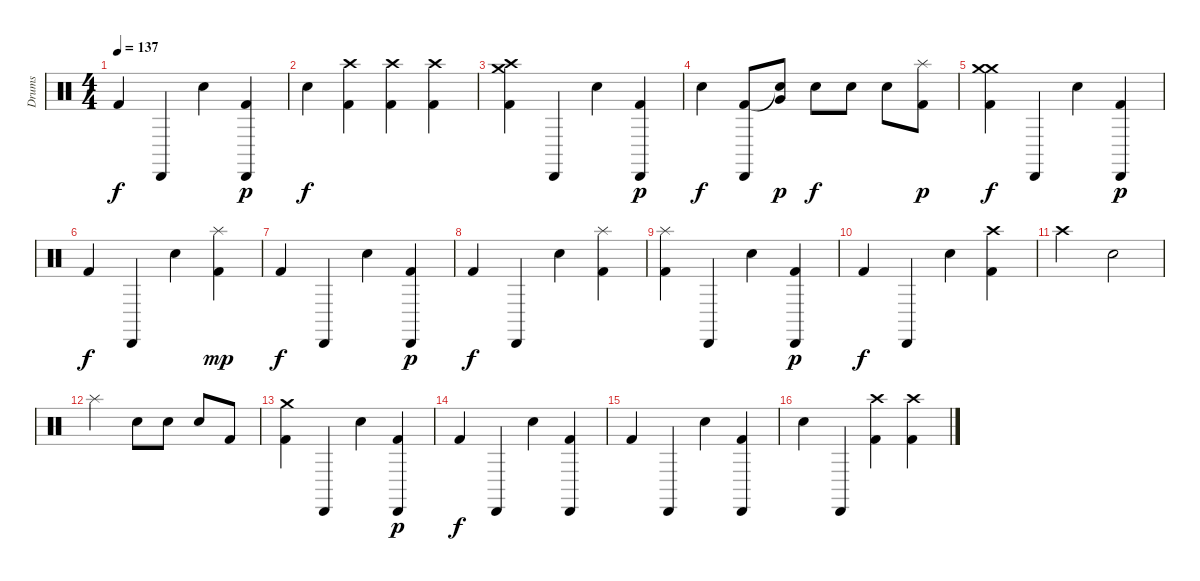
\track ("Drums" "Drums") {instrument percussion}
\staff {score}
\articulation defaults
\ts (4 4)
\tempo 137
\clef neutral
\ks c "Kick (hit) 2".4{dy f} "Cabasa (hit)".4 "Electric Snare (hit)".4
("Cabasa (hit)" "Kick (hit) 2").4{dy p} |
"Electric Snare (hit)".4{dy f} ("Crash high (hit)" "Kick (hit) 2").4 ("Crash high (hit)" "Kick (hit) 2").4 ("Crash high (hit)" "Kick (hit) 2").4 |
("Crash high (hit)" "Crash medium (hit)" "Kick (hit) 2").4 "Cabasa (hit)".4 "Electric Snare (hit)".4 ("Cabasa (hit)" "Kick (hit) 2").4{dy p} |
"Electric Snare (hit)".4{dy f} ("Cabasa (hit)" "Kick (hit) 2").8 ("Very Low Tom (hit)" "Snare (hit)"{t}).8{dy p} "Electric Snare (hit)".8{dy f} "Electric Snare (hit)".8 "Electric Snare (hit)".8 ("Splash (hit)" "Kick (hit) 2").8{dy p} |
("Crash medium (hit)" "Crash medium (hit)" "Kick (hit) 2").4{dy f} "Cabasa (hit)".4 "Electric Snare (hit)".4 ("Cabasa (hit)" "Kick (hit) 2").4{dy p} |
"Kick (hit) 2".4{dy f} "Cabasa (hit)".4 "Electric Snare (hit)".4 ("Splash (hit)" "Kick (hit) 2").4{dy mp} |
"Kick (hit) 2".4{dy f} "Cabasa (hit)".4 "Electric Snare (hit)".4 ("Cabasa (hit)" "Kick (hit) 2").4{dy p} |
"Kick (hit) 2".4{dy f} "Cabasa (hit)".4 "Electric Snare (hit)".4 ("Splash (hit)" "Kick (hit) 2").4 |
("Splash (hit)" "Kick (hit) 2").4 "Cabasa (hit)".4 "Electric Snare (hit)".4 ("Cabasa (hit)" "Kick (hit) 2").4{dy p} |
"Kick (hit) 2".4{dy f} "Cabasa (hit)".4 "Electric Snare (hit)".4 ("Crash high (hit)" "Kick (hit) 2").4 |
"Crash high (hit)".2 "Electric Snare (hit)".2 |
"Splash (hit)".2 "Electric Snare (hit)".8 "Electric Snare (hit)".8 "Electric Snare (hit)".8 "Kick (hit) 2".8 |
("Crash medium (hit)" "Kick (hit) 2").4 "Cabasa (hit)".4 "Electric Snare (hit)".4 ("Cabasa (hit)" "Kick (hit) 2").4{dy p} |
"Kick (hit) 2".4{dy f} "Cabasa (hit)".4 "Electric Snare (hit)".4 ("Cabasa (hit)" "Kick (hit) 2").4 |
"Kick (hit) 2".4 "Cabasa (hit)".4 "Electric Snare (hit)".4 ("Cabasa (hit)" "Kick (hit) 2").4 |
"Electric Snare (hit)".4 "Cabasa (hit)".4 ("Crash high (hit)" "Kick (hit) 2").4 ("Crash high (hit)" "Kick (hit) 2").4
